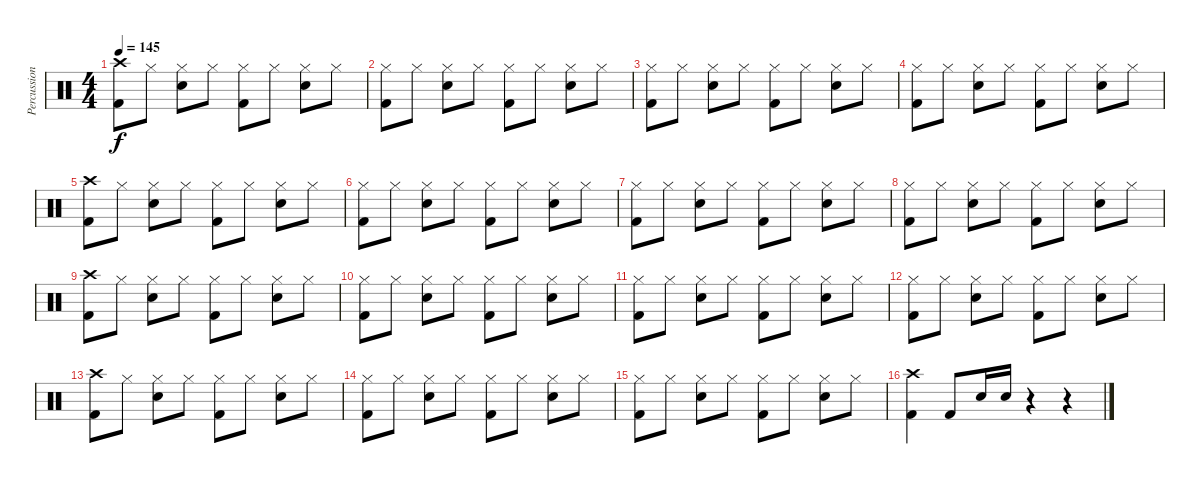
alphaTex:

\track ("Percussion" "Percussion") {instrument percussion}
\staff {score}
\articulation defaults
\ts (4 4)
\tempo 145
\clef neutral
\ks c
("Crash high (hit)" "Kick (hit) 2").8{dy f} "Hi-Hat (closed)".8 ("Hi-Hat (closed)" "Snare (hit) 2").8 "Hi-Hat (closed)".8 ("Hi-Hat (closed)" "Kick (hit) 2").8 "Hi-Hat (closed)".8 ("Hi-Hat (closed)" "Snare (hit) 2").8 "Hi-Hat (closed)".8 |
("Hi-Hat (closed)" "Kick (hit) 2").8 "Hi-Hat (closed)".8 ("Hi-Hat (closed)" "Snare (hit) 2").8 "Hi-Hat (closed)".8 ("Hi-Hat (closed)" "Kick (hit) 2").8 "Hi-Hat (closed)".8 ("Hi-Hat (closed)" "Snare (hit) 2").8 "Hi-Hat (closed)".8 |
("Hi-Hat (closed)" "Kick (hit) 2").8 "Hi-Hat (closed)".8 ("Hi-Hat (closed)" "Snare (hit) 2").8 "Hi-Hat (closed)".8 ("Hi-Hat (closed)" "Kick (hit) 2").8 "Hi-Hat (closed)".8 ("Hi-Hat (closed)" "Snare (hit) 2").8 "Hi-Hat (closed)".8 |
("Hi-Hat (closed)" "Kick (hit) 2").8 "Hi-Hat (closed)".8 ("Hi-Hat (closed)" "Snare (hit) 2").8 "Hi-Hat (closed)".8 ("Hi-Hat (closed)" "Kick (hit) 2").8 "Hi-Hat (closed)".8 ("Hi-Hat (closed)" "Snare (hit) 2").8 "Hi-Hat (closed)".8 |
("Crash high (hit)" "Kick (hit) 2").8 "Hi-Hat (closed)".8 ("Hi-Hat (closed)" "Snare (hit) 2").8 "Hi-Hat (closed)".8 ("Hi-Hat (closed)" "Kick (hit) 2").8 "Hi-Hat (closed)".8 ("Hi-Hat (closed)" "Snare (hit) 2").8 "Hi-Hat (closed)".8 |
("Hi-Hat (closed)" "Kick (hit) 2").8 "Hi-Hat (closed)".8 ("Hi-Hat (closed)" "Snare (hit) 2").8 "Hi-Hat (closed)".8 ("Hi-Hat (closed)" "Kick (hit) 2").8 "Hi-Hat (closed)".8 ("Hi-Hat (closed)" "Snare (hit) 2").8 "Hi-Hat (closed)".8 |
("Hi-Hat (closed)" "Kick (hit) 2").8 "Hi-Hat (closed)".8 ("Hi-Hat (closed)" "Snare (hit) 2").8 "Hi-Hat (closed)".8 ("Hi-Hat (closed)" "Kick (hit) 2").8 "Hi-Hat (closed)".8 ("Hi-Hat (closed)" "Snare (hit) 2").8 "Hi-Hat (closed)".8 |
("Hi-Hat (closed)" "Kick (hit) 2").8 "Hi-Hat (closed)".8 ("Hi-Hat (closed)" "Snare (hit) 2").8 "Hi-Hat (closed)".8 ("Hi-Hat (closed)" "Kick (hit) 2").8 "Hi-Hat (closed)".8 ("Hi-Hat (closed)" "Snare (hit) 2").8 "Hi-Hat (closed)".8 |
("Crash high (hit)" "Kick (hit) 2").8 "Hi-Hat (closed)".8 ("Hi-Hat (closed)" "Snare (hit) 2").8 "Hi-Hat (closed)".8 ("Hi-Hat (closed)" "Kick (hit) 2").8 "Hi-Hat (closed)".8 ("Hi-Hat (closed)" "Snare (hit) 2").8 "Hi-Hat (closed)".8 |
("Hi-Hat (closed)" "Kick (hit) 2").8 "Hi-Hat (closed)".8 ("Hi-Hat (closed)" "Snare (hit) 2").8 "Hi-Hat (closed)".8 ("Hi-Hat (closed)" "Kick (hit) 2").8 "Hi-Hat (closed)".8 ("Hi-Hat (closed)" "Snare (hit) 2").8 "Hi-Hat (closed)".8 |
("Hi-Hat (closed)" "Kick (hit) 2").8 "Hi-Hat (closed)".8 ("Hi-Hat (closed)" "Snare (hit) 2").8 "Hi-Hat (closed)".8 ("Hi-Hat (closed)" "Kick (hit) 2").8 "Hi-Hat (closed)".8 ("Hi-Hat (closed)" "Snare (hit) 2").8 "Hi-Hat (closed)".8 |
("Hi-Hat (closed)" "Kick (hit) 2").8 "Hi-Hat (closed)".8 ("Hi-Hat (closed)" "Snare (hit) 2").8 "Hi-Hat (closed)".8 ("Hi-Hat (closed)" "Kick (hit) 2").8 "Hi-Hat (closed)".8 ("Hi-Hat (closed)" "Snare (hit) 2").8 "Hi-Hat (closed)".8 |
("Crash high (hit)" "Kick (hit) 2").8 "Hi-Hat (closed)".8 ("Hi-Hat (closed)" "Snare (hit) 2").8 "Hi-Hat (closed)".8 ("Hi-Hat (closed)" "Kick (hit) 2").8 "Hi-Hat (closed)".8 ("Hi-Hat (closed)" "Snare (hit) 2").8 "Hi-Hat (closed)".8 |
("Hi-Hat (closed)" "Kick (hit) 2").8 "Hi-Hat (closed)".8 ("Hi-Hat (closed)" "Snare (hit) 2").8 "Hi-Hat (closed)".8 ("Hi-Hat (closed)" "Kick (hit) 2").8 "Hi-Hat (closed)".8 ("Hi-Hat (closed)" "Snare (hit) 2").8 "Hi-Hat (closed)".8 |
("Hi-Hat (closed)" "Kick (hit) 2").8 "Hi-Hat (closed)".8 ("Hi-Hat (closed)" "Snare (hit) 2").8 "Hi-Hat (closed)".8 ("Hi-Hat (closed)" "Kick (hit) 2").8 "Hi-Hat (closed)".8 ("Hi-Hat (closed)" "Snare (hit) 2").8 "Hi-Hat (closed)".8 |
("Crash high (hit)" "Kick (hit) 2").4 "Kick (hit) 2".8 "Electric Snare (hit)".16 "Electric Snare (hit)".16 r.4 r.4
